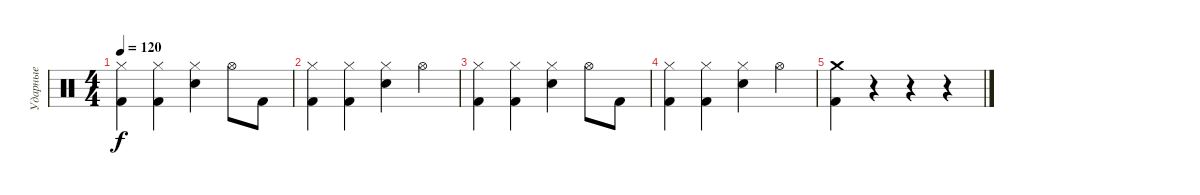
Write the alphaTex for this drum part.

\track ("Ударные" "Ударные") {instrument percussion}
\staff {score}
\articulation defaults
\ts (4 4)
\tempo 120
\clef neutral
\ks c
("Kick (hit) 2" "Hi-Hat (closed)").4{dy f} ("Kick (hit) 2" "Hi-Hat (closed)").4 ("Snare (hit) 2" "Hi-Hat (closed)").4 "Hi-Hat (open)".8 "Kick (hit) 2".8 |
("Kick (hit) 2" "Hi-Hat (closed)").4 ("Kick (hit) 2" "Hi-Hat (closed)").4 ("Snare (hit) 2" "Hi-Hat (closed)").4 "Hi-Hat (open)".4 |
("Kick (hit) 2" "Hi-Hat (closed)").4 ("Kick (hit) 2" "Hi-Hat (closed)").4 ("Snare (hit) 2" "Hi-Hat (closed)").4 "Hi-Hat (open)".8 "Kick (hit) 2".8 |
("Kick (hit) 2" "Hi-Hat (closed)").4 ("Kick (hit) 2" "Hi-Hat (closed)").4 ("Snare (hit) 2" "Hi-Hat (closed)").4 "Hi-Hat (open)".4 |
("Crash medium (hit)" "Kick (hit) 2").4 r.4 r.4 r.4
